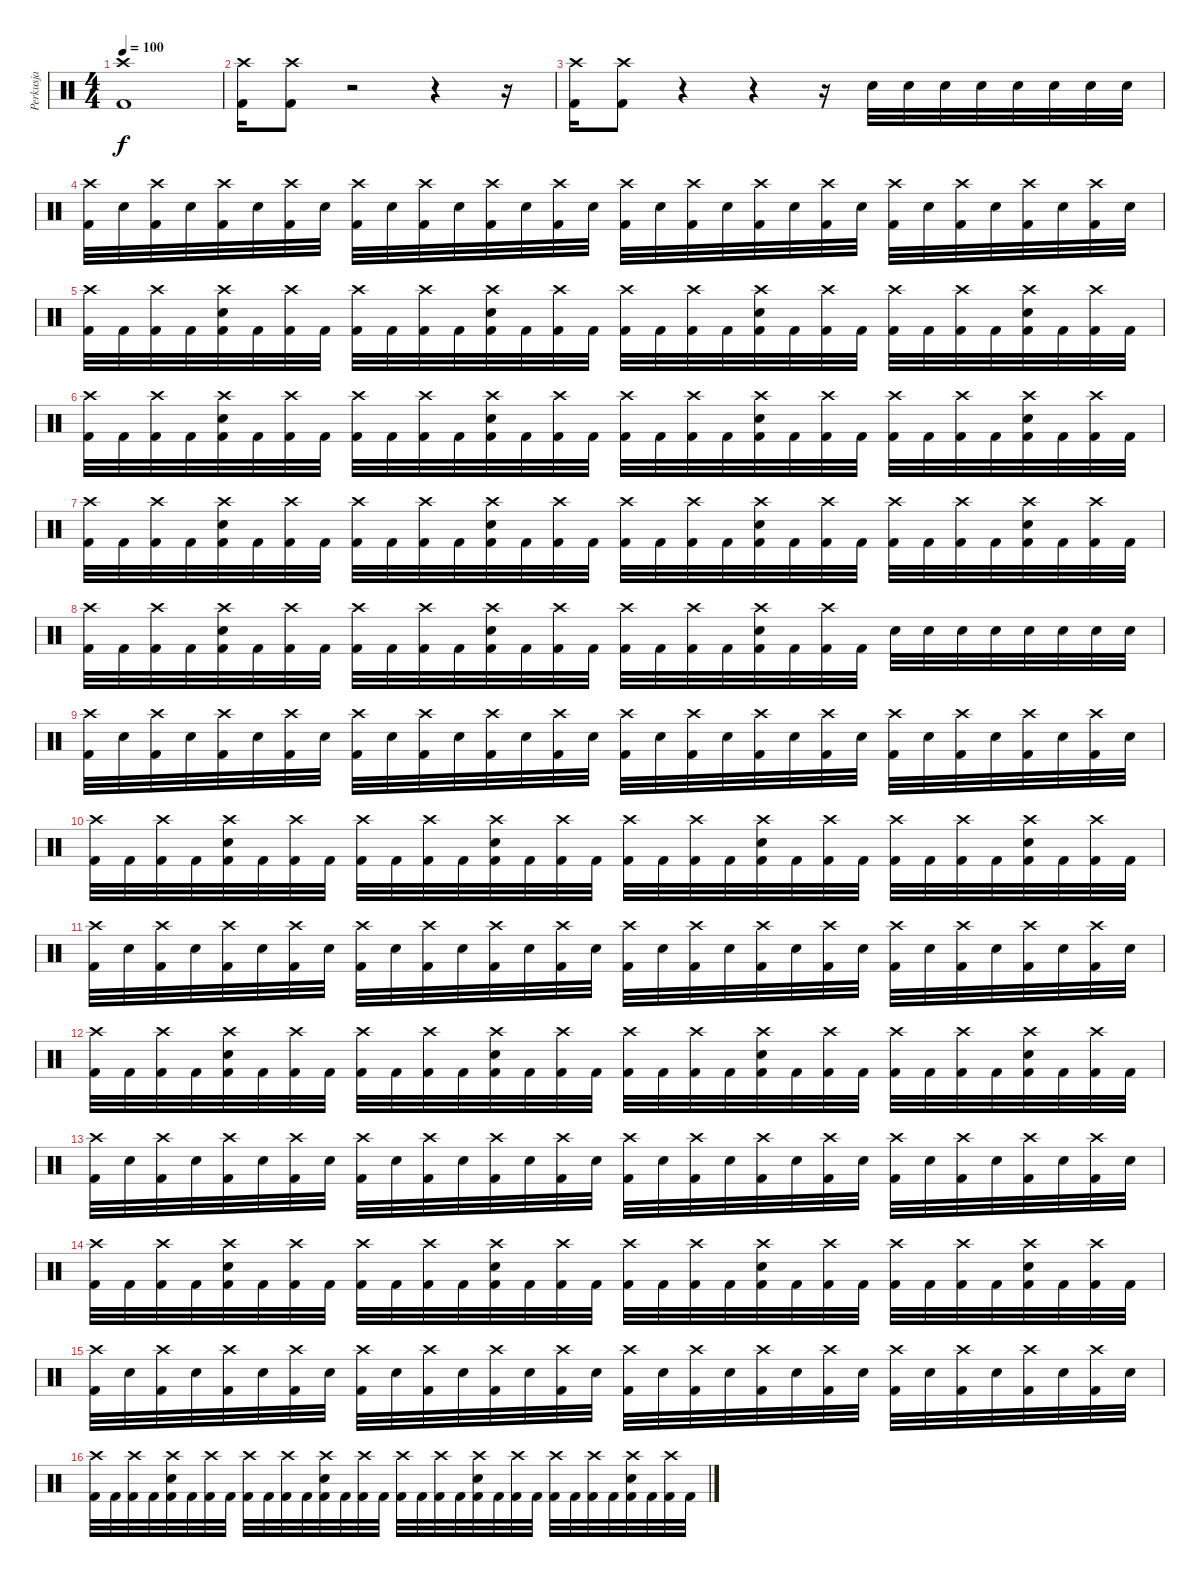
\track ("Perkusja" "Perkusja") {instrument percussion}
\staff {score}
\articulation defaults
\ts (4 4)
\tempo 100
\clef neutral
\ks c
("Crash high (hit)" "Kick (hit) 2").1{dy f} |
("Crash high (hit)" "Kick (hit) 2").16 ("Crash high (hit)" "Kick (hit) 2").8 r.2 r.4 r.16 |
("Crash high (hit)" "Kick (hit) 2").16 ("Crash high (hit)" "Kick (hit) 2").8 r.4 r.4 r.16 "Snare (hit) 2".32 "Snare (hit) 2".32 "Snare (hit) 2".32 "Snare (hit) 2".32 "Snare (hit) 2".32 "Snare (hit) 2".32 "Snare (hit) 2".32 "Snare (hit) 2".32 |
("Crash high (hit)" "Kick (hit) 2").32 "Snare (hit) 2".32 ("Crash high (hit)" "Kick (hit) 2").32 "Snare (hit) 2".32 ("Crash high (hit)" "Kick (hit) 2").32 "Snare (hit) 2".32 ("Crash high (hit)" "Kick (hit) 2").32 "Snare (hit) 2".32 ("Crash high (hit)" "Kick (hit) 2").32 "Snare (hit) 2".32 ("Crash high (hit)" "Kick (hit) 2").32 "Snare (hit) 2".32 ("Crash high (hit)" "Kick (hit) 2").32 "Snare (hit) 2".32 ("Crash high (hit)" "Kick (hit) 2").32 "Snare (hit) 2".32 ("Crash high (hit)" "Kick (hit) 2").32 "Snare (hit) 2".32 ("Crash high (hit)" "Kick (hit) 2").32 "Snare (hit) 2".32 ("Crash high (hit)" "Kick (hit) 2").32 "Snare (hit) 2".32 ("Crash high (hit)" "Kick (hit) 2").32 "Snare (hit) 2".32 ("Crash high (hit)" "Kick (hit) 2").32 "Snare (hit) 2".32 ("Crash high (hit)" "Kick (hit) 2").32 "Snare (hit) 2".32 ("Crash high (hit)" "Kick (hit) 2").32 "Snare (hit) 2".32 ("Crash high (hit)" "Kick (hit) 2").32 "Snare (hit) 2".32 |
("Crash high (hit)" "Kick (hit) 2").32 "Kick (hit) 2".32 ("Crash high (hit)" "Kick (hit) 2").32 "Kick (hit) 2".32 ("Crash high (hit)" "Snare (hit) 2" "Kick (hit) 2").32 "Kick (hit) 2".32 ("Crash high (hit)" "Kick (hit) 2").32 "Kick (hit) 2".32 ("Crash high (hit)" "Kick (hit) 2").32 "Kick (hit) 2".32 ("Crash high (hit)" "Kick (hit) 2").32 "Kick (hit) 2".32 ("Crash high (hit)" "Snare (hit) 2" "Kick (hit) 2").32 "Kick (hit) 2".32 ("Crash high (hit)" "Kick (hit) 2").32 "Kick (hit) 2".32 ("Crash high (hit)" "Kick (hit) 2").32 "Kick (hit) 2".32 ("Crash high (hit)" "Kick (hit) 2").32 "Kick (hit) 2".32 ("Crash high (hit)" "Snare (hit) 2" "Kick (hit) 2").32 "Kick (hit) 2".32 ("Crash high (hit)" "Kick (hit) 2").32 "Kick (hit) 2".32 ("Crash high (hit)" "Kick (hit) 2").32 "Kick (hit) 2".32 ("Crash high (hit)" "Kick (hit) 2").32 "Kick (hit) 2".32 ("Crash high (hit)" "Snare (hit) 2" "Kick (hit) 2").32 "Kick (hit) 2".32 ("Crash high (hit)" "Kick (hit) 2").32 "Kick (hit) 2".32 |
("Crash high (hit)" "Kick (hit) 2").32 "Kick (hit) 2".32 ("Crash high (hit)" "Kick (hit) 2").32 "Kick (hit) 2".32 ("Crash high (hit)" "Snare (hit) 2" "Kick (hit) 2").32 "Kick (hit) 2".32 ("Crash high (hit)" "Kick (hit) 2").32 "Kick (hit) 2".32 ("Crash high (hit)" "Kick (hit) 2").32 "Kick (hit) 2".32 ("Crash high (hit)" "Kick (hit) 2").32 "Kick (hit) 2".32 ("Crash high (hit)" "Snare (hit) 2" "Kick (hit) 2").32 "Kick (hit) 2".32 ("Crash high (hit)" "Kick (hit) 2").32 "Kick (hit) 2".32 ("Crash high (hit)" "Kick (hit) 2").32 "Kick (hit) 2".32 ("Crash high (hit)" "Kick (hit) 2").32 "Kick (hit) 2".32 ("Crash high (hit)" "Snare (hit) 2" "Kick (hit) 2").32 "Kick (hit) 2".32 ("Crash high (hit)" "Kick (hit) 2").32 "Kick (hit) 2".32 ("Crash high (hit)" "Kick (hit) 2").32 "Kick (hit) 2".32 ("Crash high (hit)" "Kick (hit) 2").32 "Kick (hit) 2".32 ("Crash high (hit)" "Snare (hit) 2" "Kick (hit) 2").32 "Kick (hit) 2".32 ("Crash high (hit)" "Kick (hit) 2").32 "Kick (hit) 2".32 |
("Crash high (hit)" "Kick (hit) 2").32 "Kick (hit) 2".32 ("Crash high (hit)" "Kick (hit) 2").32 "Kick (hit) 2".32 ("Crash high (hit)" "Snare (hit) 2" "Kick (hit) 2").32 "Kick (hit) 2".32 ("Crash high (hit)" "Kick (hit) 2").32 "Kick (hit) 2".32 ("Crash high (hit)" "Kick (hit) 2").32 "Kick (hit) 2".32 ("Crash high (hit)" "Kick (hit) 2").32 "Kick (hit) 2".32 ("Crash high (hit)" "Snare (hit) 2" "Kick (hit) 2").32 "Kick (hit) 2".32 ("Crash high (hit)" "Kick (hit) 2").32 "Kick (hit) 2".32 ("Crash high (hit)" "Kick (hit) 2").32 "Kick (hit) 2".32 ("Crash high (hit)" "Kick (hit) 2").32 "Kick (hit) 2".32 ("Crash high (hit)" "Snare (hit) 2" "Kick (hit) 2").32 "Kick (hit) 2".32 ("Crash high (hit)" "Kick (hit) 2").32 "Kick (hit) 2".32 ("Crash high (hit)" "Kick (hit) 2").32 "Kick (hit) 2".32 ("Crash high (hit)" "Kick (hit) 2").32 "Kick (hit) 2".32 ("Crash high (hit)" "Snare (hit) 2" "Kick (hit) 2").32 "Kick (hit) 2".32 ("Crash high (hit)" "Kick (hit) 2").32 "Kick (hit) 2".32 |
("Crash high (hit)" "Kick (hit) 2").32 "Kick (hit) 2".32 ("Crash high (hit)" "Kick (hit) 2").32 "Kick (hit) 2".32 ("Crash high (hit)" "Snare (hit) 2" "Kick (hit) 2").32 "Kick (hit) 2".32 ("Crash high (hit)" "Kick (hit) 2").32 "Kick (hit) 2".32 ("Crash high (hit)" "Kick (hit) 2").32 "Kick (hit) 2".32 ("Crash high (hit)" "Kick (hit) 2").32 "Kick (hit) 2".32 ("Crash high (hit)" "Snare (hit) 2" "Kick (hit) 2").32 "Kick (hit) 2".32 ("Crash high (hit)" "Kick (hit) 2").32 "Kick (hit) 2".32 ("Crash high (hit)" "Kick (hit) 2").32 "Kick (hit) 2".32 ("Crash high (hit)" "Kick (hit) 2").32 "Kick (hit) 2".32 ("Crash high (hit)" "Snare (hit) 2" "Kick (hit) 2").32 "Kick (hit) 2".32 ("Crash high (hit)" "Kick (hit) 2").32 "Kick (hit) 2".32 "Snare (hit) 2".32 "Snare (hit) 2".32 "Snare (hit) 2".32 "Snare (hit) 2".32 "Snare (hit) 2".32 "Snare (hit) 2".32 "Snare (hit) 2".32 "Snare (hit) 2".32 |
("Crash high (hit)" "Kick (hit) 2").32 "Snare (hit) 2".32 ("Crash high (hit)" "Kick (hit) 2").32 "Snare (hit) 2".32 ("Crash high (hit)" "Kick (hit) 2").32 "Snare (hit) 2".32 ("Crash high (hit)" "Kick (hit) 2").32 "Snare (hit) 2".32 ("Crash high (hit)" "Kick (hit) 2").32 "Snare (hit) 2".32 ("Crash high (hit)" "Kick (hit) 2").32 "Snare (hit) 2".32 ("Crash high (hit)" "Kick (hit) 2").32 "Snare (hit) 2".32 ("Crash high (hit)" "Kick (hit) 2").32 "Snare (hit) 2".32 ("Crash high (hit)" "Kick (hit) 2").32 "Snare (hit) 2".32 ("Crash high (hit)" "Kick (hit) 2").32 "Snare (hit) 2".32 ("Crash high (hit)" "Kick (hit) 2").32 "Snare (hit) 2".32 ("Crash high (hit)" "Kick (hit) 2").32 "Snare (hit) 2".32 ("Crash high (hit)" "Kick (hit) 2").32 "Snare (hit) 2".32 ("Crash high (hit)" "Kick (hit) 2").32 "Snare (hit) 2".32 ("Crash high (hit)" "Kick (hit) 2").32 "Snare (hit) 2".32 ("Crash high (hit)" "Kick (hit) 2").32 "Snare (hit) 2".32 |
("Crash high (hit)" "Kick (hit) 2").32 "Kick (hit) 2".32 ("Crash high (hit)" "Kick (hit) 2").32 "Kick (hit) 2".32 ("Crash high (hit)" "Snare (hit) 2" "Kick (hit) 2").32 "Kick (hit) 2".32 ("Crash high (hit)" "Kick (hit) 2").32 "Kick (hit) 2".32 ("Crash high (hit)" "Kick (hit) 2").32 "Kick (hit) 2".32 ("Crash high (hit)" "Kick (hit) 2").32 "Kick (hit) 2".32 ("Crash high (hit)" "Snare (hit) 2" "Kick (hit) 2").32 "Kick (hit) 2".32 ("Crash high (hit)" "Kick (hit) 2").32 "Kick (hit) 2".32 ("Crash high (hit)" "Kick (hit) 2").32 "Kick (hit) 2".32 ("Crash high (hit)" "Kick (hit) 2").32 "Kick (hit) 2".32 ("Crash high (hit)" "Snare (hit) 2" "Kick (hit) 2").32 "Kick (hit) 2".32 ("Crash high (hit)" "Kick (hit) 2").32 "Kick (hit) 2".32 ("Crash high (hit)" "Kick (hit) 2").32 "Kick (hit) 2".32 ("Crash high (hit)" "Kick (hit) 2").32 "Kick (hit) 2".32 ("Crash high (hit)" "Snare (hit) 2" "Kick (hit) 2").32 "Kick (hit) 2".32 ("Crash high (hit)" "Kick (hit) 2").32 "Kick (hit) 2".32 |
("Crash high (hit)" "Kick (hit) 2").32 "Snare (hit) 2".32 ("Crash high (hit)" "Kick (hit) 2").32 "Snare (hit) 2".32 ("Crash high (hit)" "Kick (hit) 2").32 "Snare (hit) 2".32 ("Crash high (hit)" "Kick (hit) 2").32 "Snare (hit) 2".32 ("Crash high (hit)" "Kick (hit) 2").32 "Snare (hit) 2".32 ("Crash high (hit)" "Kick (hit) 2").32 "Snare (hit) 2".32 ("Crash high (hit)" "Kick (hit) 2").32 "Snare (hit) 2".32 ("Crash high (hit)" "Kick (hit) 2").32 "Snare (hit) 2".32 ("Crash high (hit)" "Kick (hit) 2").32 "Snare (hit) 2".32 ("Crash high (hit)" "Kick (hit) 2").32 "Snare (hit) 2".32 ("Crash high (hit)" "Kick (hit) 2").32 "Snare (hit) 2".32 ("Crash high (hit)" "Kick (hit) 2").32 "Snare (hit) 2".32 ("Crash high (hit)" "Kick (hit) 2").32 "Snare (hit) 2".32 ("Crash high (hit)" "Kick (hit) 2").32 "Snare (hit) 2".32 ("Crash high (hit)" "Kick (hit) 2").32 "Snare (hit) 2".32 ("Crash high (hit)" "Kick (hit) 2").32 "Snare (hit) 2".32 |
("Crash high (hit)" "Kick (hit) 2").32 "Kick (hit) 2".32 ("Crash high (hit)" "Kick (hit) 2").32 "Kick (hit) 2".32 ("Crash high (hit)" "Snare (hit) 2" "Kick (hit) 2").32 "Kick (hit) 2".32 ("Crash high (hit)" "Kick (hit) 2").32 "Kick (hit) 2".32 ("Crash high (hit)" "Kick (hit) 2").32 "Kick (hit) 2".32 ("Crash high (hit)" "Kick (hit) 2").32 "Kick (hit) 2".32 ("Crash high (hit)" "Snare (hit) 2" "Kick (hit) 2").32 "Kick (hit) 2".32 ("Crash high (hit)" "Kick (hit) 2").32 "Kick (hit) 2".32 ("Crash high (hit)" "Kick (hit) 2").32 "Kick (hit) 2".32 ("Crash high (hit)" "Kick (hit) 2").32 "Kick (hit) 2".32 ("Crash high (hit)" "Snare (hit) 2" "Kick (hit) 2").32 "Kick (hit) 2".32 ("Crash high (hit)" "Kick (hit) 2").32 "Kick (hit) 2".32 ("Crash high (hit)" "Kick (hit) 2").32 "Kick (hit) 2".32 ("Crash high (hit)" "Kick (hit) 2").32 "Kick (hit) 2".32 ("Crash high (hit)" "Snare (hit) 2" "Kick (hit) 2").32 "Kick (hit) 2".32 ("Crash high (hit)" "Kick (hit) 2").32 "Kick (hit) 2".32 |
("Crash high (hit)" "Kick (hit) 2").32 "Snare (hit) 2".32 ("Crash high (hit)" "Kick (hit) 2").32 "Snare (hit) 2".32 ("Crash high (hit)" "Kick (hit) 2").32 "Snare (hit) 2".32 ("Crash high (hit)" "Kick (hit) 2").32 "Snare (hit) 2".32 ("Crash high (hit)" "Kick (hit) 2").32 "Snare (hit) 2".32 ("Crash high (hit)" "Kick (hit) 2").32 "Snare (hit) 2".32 ("Crash high (hit)" "Kick (hit) 2").32 "Snare (hit) 2".32 ("Crash high (hit)" "Kick (hit) 2").32 "Snare (hit) 2".32 ("Crash high (hit)" "Kick (hit) 2").32 "Snare (hit) 2".32 ("Crash high (hit)" "Kick (hit) 2").32 "Snare (hit) 2".32 ("Crash high (hit)" "Kick (hit) 2").32 "Snare (hit) 2".32 ("Crash high (hit)" "Kick (hit) 2").32 "Snare (hit) 2".32 ("Crash high (hit)" "Kick (hit) 2").32 "Snare (hit) 2".32 ("Crash high (hit)" "Kick (hit) 2").32 "Snare (hit) 2".32 ("Crash high (hit)" "Kick (hit) 2").32 "Snare (hit) 2".32 ("Crash high (hit)" "Kick (hit) 2").32 "Snare (hit) 2".32 |
("Crash high (hit)" "Kick (hit) 2").32 "Kick (hit) 2".32 ("Crash high (hit)" "Kick (hit) 2").32 "Kick (hit) 2".32 ("Crash high (hit)" "Snare (hit) 2" "Kick (hit) 2").32 "Kick (hit) 2".32 ("Crash high (hit)" "Kick (hit) 2").32 "Kick (hit) 2".32 ("Crash high (hit)" "Kick (hit) 2").32 "Kick (hit) 2".32 ("Crash high (hit)" "Kick (hit) 2").32 "Kick (hit) 2".32 ("Crash high (hit)" "Snare (hit) 2" "Kick (hit) 2").32 "Kick (hit) 2".32 ("Crash high (hit)" "Kick (hit) 2").32 "Kick (hit) 2".32 ("Crash high (hit)" "Kick (hit) 2").32 "Kick (hit) 2".32 ("Crash high (hit)" "Kick (hit) 2").32 "Kick (hit) 2".32 ("Crash high (hit)" "Snare (hit) 2" "Kick (hit) 2").32 "Kick (hit) 2".32 ("Crash high (hit)" "Kick (hit) 2").32 "Kick (hit) 2".32 ("Crash high (hit)" "Kick (hit) 2").32 "Kick (hit) 2".32 ("Crash high (hit)" "Kick (hit) 2").32 "Kick (hit) 2".32 ("Crash high (hit)" "Snare (hit) 2" "Kick (hit) 2").32 "Kick (hit) 2".32 ("Crash high (hit)" "Kick (hit) 2").32 "Kick (hit) 2".32 |
("Crash high (hit)" "Kick (hit) 2").32 "Snare (hit) 2".32 ("Crash high (hit)" "Kick (hit) 2").32 "Snare (hit) 2".32 ("Crash high (hit)" "Kick (hit) 2").32 "Snare (hit) 2".32 ("Crash high (hit)" "Kick (hit) 2").32 "Snare (hit) 2".32 ("Crash high (hit)" "Kick (hit) 2").32 "Snare (hit) 2".32 ("Crash high (hit)" "Kick (hit) 2").32 "Snare (hit) 2".32 ("Crash high (hit)" "Kick (hit) 2").32 "Snare (hit) 2".32 ("Crash high (hit)" "Kick (hit) 2").32 "Snare (hit) 2".32 ("Crash high (hit)" "Kick (hit) 2").32 "Snare (hit) 2".32 ("Crash high (hit)" "Kick (hit) 2").32 "Snare (hit) 2".32 ("Crash high (hit)" "Kick (hit) 2").32 "Snare (hit) 2".32 ("Crash high (hit)" "Kick (hit) 2").32 "Snare (hit) 2".32 ("Crash high (hit)" "Kick (hit) 2").32 "Snare (hit) 2".32 ("Crash high (hit)" "Kick (hit) 2").32 "Snare (hit) 2".32 ("Crash high (hit)" "Kick (hit) 2").32 "Snare (hit) 2".32 ("Crash high (hit)" "Kick (hit) 2").32 "Snare (hit) 2".32 |
("Crash high (hit)" "Kick (hit) 2").32 "Kick (hit) 2".32 ("Crash high (hit)" "Kick (hit) 2").32 "Kick (hit) 2".32 ("Crash high (hit)" "Snare (hit) 2" "Kick (hit) 2").32 "Kick (hit) 2".32 ("Crash high (hit)" "Kick (hit) 2").32 "Kick (hit) 2".32 ("Crash high (hit)" "Kick (hit) 2").32 "Kick (hit) 2".32 ("Crash high (hit)" "Kick (hit) 2").32 "Kick (hit) 2".32 ("Crash high (hit)" "Snare (hit) 2" "Kick (hit) 2").32 "Kick (hit) 2".32 ("Crash high (hit)" "Kick (hit) 2").32 "Kick (hit) 2".32 ("Crash high (hit)" "Kick (hit) 2").32 "Kick (hit) 2".32 ("Crash high (hit)" "Kick (hit) 2").32 "Kick (hit) 2".32 ("Crash high (hit)" "Snare (hit) 2" "Kick (hit) 2").32 "Kick (hit) 2".32 ("Crash high (hit)" "Kick (hit) 2").32 "Kick (hit) 2".32 ("Crash high (hit)" "Kick (hit) 2").32 "Kick (hit) 2".32 ("Crash high (hit)" "Kick (hit) 2").32 "Kick (hit) 2".32 ("Crash high (hit)" "Snare (hit) 2" "Kick (hit) 2").32 "Kick (hit) 2".32 ("Crash high (hit)" "Kick (hit) 2").32 "Kick (hit) 2".32
